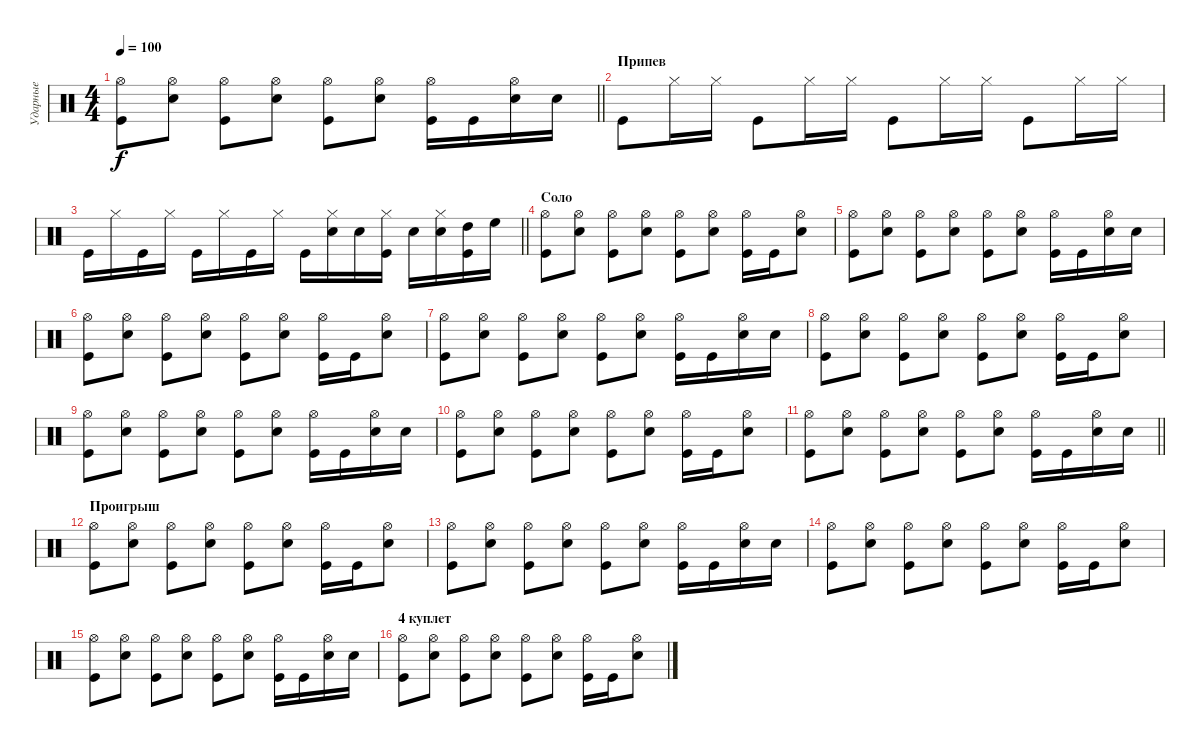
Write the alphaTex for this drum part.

\track ("Ударные" "Ударные") {instrument percussion}
\staff {score}
\articulation defaults
\ts (4 4)
\tempo 100
\clef neutral
\barLineRight lightlight
\ks c
("Hi-Hat (open)" "Kick (hit)").8{dy f} ("Hi-Hat (open)" "Snare (hit) 2").8 ("Hi-Hat (open)" "Kick (hit)").8 ("Hi-Hat (open)" "Snare (hit) 2").8 ("Hi-Hat (open)" "Kick (hit)").8 ("Hi-Hat (open)" "Snare (hit) 2").8 ("Hi-Hat (open)" "Kick (hit)").16 "Kick (hit)".16 ("Hi-Hat (open)" "Snare (hit) 2").16 "Snare (hit) 2".16 |
\section ("" "Припев")
"Kick (hit)".8 "Hi-Hat (closed)".16 "Hi-Hat (closed)".16 "Kick (hit)".8 "Hi-Hat (closed)".16 "Hi-Hat (closed)".16 "Kick (hit)".8 "Hi-Hat (closed)".16 "Hi-Hat (closed)".16 "Kick (hit)".8 "Hi-Hat (closed)".16 "Hi-Hat (closed)".16 |
\barLineRight lightlight "Kick (hit)".16 "Hi-Hat (closed)".16 "Kick (hit)".16 "Hi-Hat (closed)".16 "Kick (hit)".16 "Hi-Hat (closed)".16 "Kick (hit)".16 "Hi-Hat (closed)".16 "Kick (hit)".16
("Hi-Hat (closed)" "Snare (hit) 2").16 "Snare (hit) 2".16 ("Hi-Hat (closed)" "Kick (hit)").16 "Snare (hit) 2".16 ("Hi-Hat (closed)" "Snare (hit) 2").16 ("High Tom (hit)" "Kick (hit)").16 "High Floor Tom (hit)".16 |
\section ("" "Соло")
("Hi-Hat (open)" "Kick (hit)").8 ("Hi-Hat (open)" "Snare (hit) 2").8 ("Hi-Hat (open)" "Kick (hit)").8 ("Hi-Hat (open)" "Snare (hit) 2").8 ("Hi-Hat (open)" "Kick (hit)").8 ("Hi-Hat (open)" "Snare (hit) 2").8 ("Hi-Hat (open)" "Kick (hit)").16 "Kick (hit)".16 ("Hi-Hat (open)" "Snare (hit) 2").8 |
("Hi-Hat (open)" "Kick (hit)").8 ("Hi-Hat (open)" "Snare (hit) 2").8 ("Hi-Hat (open)" "Kick (hit)").8 ("Hi-Hat (open)" "Snare (hit) 2").8 ("Hi-Hat (open)" "Kick (hit)").8 ("Hi-Hat (open)" "Snare (hit) 2").8 ("Hi-Hat (open)" "Kick (hit)").16 "Kick (hit)".16 ("Hi-Hat (open)" "Snare (hit) 2").16 "Snare (hit) 2".16 |
("Hi-Hat (open)" "Kick (hit)").8 ("Hi-Hat (open)" "Snare (hit) 2").8 ("Hi-Hat (open)" "Kick (hit)").8 ("Hi-Hat (open)" "Snare (hit) 2").8 ("Hi-Hat (open)" "Kick (hit)").8 ("Hi-Hat (open)" "Snare (hit) 2").8 ("Hi-Hat (open)" "Kick (hit)").16 "Kick (hit)".16 ("Hi-Hat (open)" "Snare (hit) 2").8 |
("Hi-Hat (open)" "Kick (hit)").8 ("Hi-Hat (open)" "Snare (hit) 2").8 ("Hi-Hat (open)" "Kick (hit)").8 ("Hi-Hat (open)" "Snare (hit) 2").8 ("Hi-Hat (open)" "Kick (hit)").8 ("Hi-Hat (open)" "Snare (hit) 2").8 ("Hi-Hat (open)" "Kick (hit)").16 "Kick (hit)".16 ("Hi-Hat (open)" "Snare (hit) 2").16 "Snare (hit) 2".16 |
("Hi-Hat (open)" "Kick (hit)").8 ("Hi-Hat (open)" "Snare (hit) 2").8 ("Hi-Hat (open)" "Kick (hit)").8 ("Hi-Hat (open)" "Snare (hit) 2").8 ("Hi-Hat (open)" "Kick (hit)").8 ("Hi-Hat (open)" "Snare (hit) 2").8 ("Hi-Hat (open)" "Kick (hit)").16 "Kick (hit)".16 ("Hi-Hat (open)" "Snare (hit) 2").8 |
("Hi-Hat (open)" "Kick (hit)").8 ("Hi-Hat (open)" "Snare (hit) 2").8 ("Hi-Hat (open)" "Kick (hit)").8 ("Hi-Hat (open)" "Snare (hit) 2").8 ("Hi-Hat (open)" "Kick (hit)").8 ("Hi-Hat (open)" "Snare (hit) 2").8 ("Hi-Hat (open)" "Kick (hit)").16 "Kick (hit)".16 ("Hi-Hat (open)" "Snare (hit) 2").16 "Snare (hit) 2".16 |
("Hi-Hat (open)" "Kick (hit)").8 ("Hi-Hat (open)" "Snare (hit) 2").8 ("Hi-Hat (open)" "Kick (hit)").8 ("Hi-Hat (open)" "Snare (hit) 2").8 ("Hi-Hat (open)" "Kick (hit)").8 ("Hi-Hat (open)" "Snare (hit) 2").8 ("Hi-Hat (open)" "Kick (hit)").16 "Kick (hit)".16 ("Hi-Hat (open)" "Snare (hit) 2").8 |
\barLineRight lightlight
("Hi-Hat (open)" "Kick (hit)").8 ("Hi-Hat (open)" "Snare (hit) 2").8 ("Hi-Hat (open)" "Kick (hit)").8 ("Hi-Hat (open)" "Snare (hit) 2").8 ("Hi-Hat (open)" "Kick (hit)").8 ("Hi-Hat (open)" "Snare (hit) 2").8 ("Hi-Hat (open)" "Kick (hit)").16 "Kick (hit)".16 ("Hi-Hat (open)" "Snare (hit) 2").16 "Snare (hit) 2".16 |
\section ("" "Проигрыш")
("Hi-Hat (open)" "Kick (hit)").8 ("Hi-Hat (open)" "Snare (hit) 2").8 ("Hi-Hat (open)" "Kick (hit)").8 ("Hi-Hat (open)" "Snare (hit) 2").8 ("Hi-Hat (open)" "Kick (hit)").8 ("Hi-Hat (open)" "Snare (hit) 2").8 ("Hi-Hat (open)" "Kick (hit)").16 "Kick (hit)".16 ("Hi-Hat (open)" "Snare (hit) 2").8 |
("Hi-Hat (open)" "Kick (hit)").8 ("Hi-Hat (open)" "Snare (hit) 2").8 ("Hi-Hat (open)" "Kick (hit)").8 ("Hi-Hat (open)" "Snare (hit) 2").8 ("Hi-Hat (open)" "Kick (hit)").8 ("Hi-Hat (open)" "Snare (hit) 2").8 ("Hi-Hat (open)" "Kick (hit)").16 "Kick (hit)".16 ("Hi-Hat (open)" "Snare (hit) 2").16 "Snare (hit) 2".16 |
("Hi-Hat (open)" "Kick (hit)").8 ("Hi-Hat (open)" "Snare (hit) 2").8 ("Hi-Hat (open)" "Kick (hit)").8 ("Hi-Hat (open)" "Snare (hit) 2").8 ("Hi-Hat (open)" "Kick (hit)").8 ("Hi-Hat (open)" "Snare (hit) 2").8 ("Hi-Hat (open)" "Kick (hit)").16 "Kick (hit)".16 ("Hi-Hat (open)" "Snare (hit) 2").8 |
("Hi-Hat (open)" "Kick (hit)").8 ("Hi-Hat (open)" "Snare (hit) 2").8 ("Hi-Hat (open)" "Kick (hit)").8 ("Hi-Hat (open)" "Snare (hit) 2").8 ("Hi-Hat (open)" "Kick (hit)").8 ("Hi-Hat (open)" "Snare (hit) 2").8 ("Hi-Hat (open)" "Kick (hit)").16 "Kick (hit)".16 ("Hi-Hat (open)" "Snare (hit) 2").16 "Snare (hit) 2".16 |
\section ("" "4 куплет")
("Hi-Hat (open)" "Kick (hit)").8 ("Hi-Hat (open)" "Snare (hit) 2").8 ("Hi-Hat (open)" "Kick (hit)").8 ("Hi-Hat (open)" "Snare (hit) 2").8 ("Hi-Hat (open)" "Kick (hit)").8 ("Hi-Hat (open)" "Snare (hit) 2").8 ("Hi-Hat (open)" "Kick (hit)").16 "Kick (hit)".16 ("Hi-Hat (open)" "Snare (hit) 2").8
